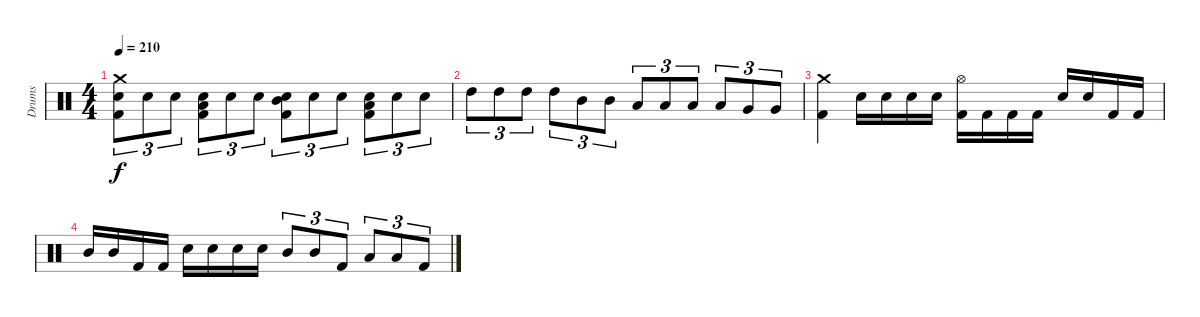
\track ("Drums" "Drums") {instrument percussion}
\staff {score}
\articulation defaults
\ts (4 4)
\tempo 210
\clef neutral
\ks c
("Crash medium (hit)" "Electric Snare (hit)" "Kick (hit) 2").8{tu (3 2) dy f} "Electric Snare (hit)".8{tu (3 2)} "Electric Snare (hit)".8{tu (3 2)} ("Low Tom (hit)" "Electric Snare (hit)" "Kick (hit) 2").8{tu (3 2)} "Electric Snare (hit)".8{tu (3 2)} "Electric Snare (hit)".8{tu (3 2)} ("Mid Tom (hit)" "Electric Snare (hit)" "Kick (hit) 2").8{tu (3 2)} "Electric Snare (hit)".8{tu (3 2)} "Electric Snare (hit)".8{tu (3 2)} ("Low Tom (hit)" "Electric Snare (hit)" "Kick (hit) 2").8{tu (3 2)} "Electric Snare (hit)".8{tu (3 2)} "Electric Snare (hit)".8{tu (3 2)} |
"High Tom (hit)".8{tu (3 2)} "High Tom (hit)".8{tu (3 2)} "High Tom (hit)".8{tu (3 2)} "High Tom (hit)".8{tu (3 2)} "Mid Tom (hit)".8{tu (3 2)} "Mid Tom (hit)".8{tu (3 2)} "Low Tom (hit)".8{tu (3 2)} "Low Tom (hit)".8{tu (3 2)} "Low Tom (hit)".8{tu (3 2)} "Low Tom (hit)".8{tu (3 2)} "Very Low Tom (hit)".8{tu (3 2)} "Very Low Tom (hit)".8{tu (3 2)} |
("Crash medium (hit)" "Kick (hit) 2").4 "Electric Snare (hit)".16 "Electric Snare (hit)".16 "Electric Snare (hit)".16 "Electric Snare (hit)".16 ("Hi-Hat (open)" "Kick (hit) 2").16 "Kick (hit) 2".16 "Kick (hit) 2".16 "Kick (hit) 2".16 "Electric Snare (hit)".16 "Electric Snare (hit)".16 "Kick (hit) 2".16 "Kick (hit) 2".16 |
"Mid Tom (hit)".16 "Mid Tom (hit)".16 "Kick (hit) 2".16 "Kick (hit) 2".16 "Electric Snare (hit)".16 "Electric Snare (hit)".16 "Electric Snare (hit)".16 "Electric Snare (hit)".16 "Mid Tom (hit)".8{tu (3 2)} "Mid Tom (hit)".8{tu (3 2)} "Kick (hit) 2".8{tu (3 2)} "Low Tom (hit)".8{tu (3 2)} "Low Tom (hit)".8{tu (3 2)} "Kick (hit) 2".8{tu (3 2)}
